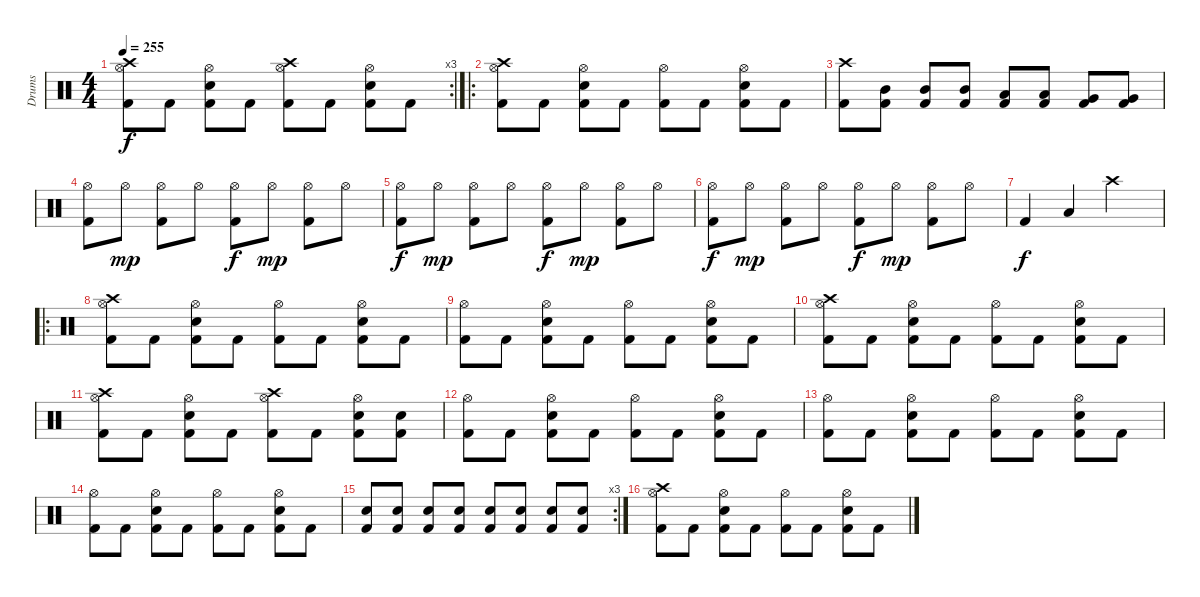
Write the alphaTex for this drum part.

\track ("Drums" "Drums") {instrument percussion}
\staff {score}
\articulation defaults
\rc 3
\ts (4 4)
\tempo 255
\clef neutral
\ks c
("Crash high (hit)" "Hi-Hat (open)" "Kick (hit) 2").8{dy f} "Kick (hit) 2".8 ("Hi-Hat (open)" "Electric Snare (hit)" "Kick (hit) 2").8 "Kick (hit) 2".8 ("Crash high (hit)" "Hi-Hat (open)" "Kick (hit) 2").8 "Kick (hit) 2".8 ("Hi-Hat (open)" "Electric Snare (hit)" "Kick (hit) 2").8 "Kick (hit) 2".8 |
\ro
("Crash high (hit)" "Hi-Hat (open)" "Kick (hit) 2").8 "Kick (hit) 2".8 ("Hi-Hat (open)" "Electric Snare (hit)" "Kick (hit) 2").8 "Kick (hit) 2".8 ("Hi-Hat (open)" "Kick (hit) 2").8 "Kick (hit) 2".8 ("Hi-Hat (open)" "Electric Snare (hit)" "Kick (hit) 2").8 "Kick (hit) 2".8 |
("Crash high (hit)" "Kick (hit) 2").8 ("Mid Tom (hit)" "Kick (hit) 2").8 ("Mid Tom (hit)" "Kick (hit) 2").8 ("Mid Tom (hit)" "Kick (hit) 2").8 ("Low Tom (hit)" "Kick (hit) 2").8 ("Low Tom (hit)" "Kick (hit) 2").8 ("Very Low Tom (hit)" "Kick (hit) 2").8 ("Very Low Tom (hit)" "Kick (hit) 2").8 |
("Hi-Hat (open)" "Kick (hit) 2").8 "Hi-Hat (open)".8{dy mp} ("Hi-Hat (open)" "Kick (hit) 2").8 "Hi-Hat (open)".8 ("Hi-Hat (open)" "Kick (hit) 2").8{dy f} "Hi-Hat (open)".8{dy mp} ("Hi-Hat (open)" "Kick (hit) 2").8 "Hi-Hat (open)".8 |
("Hi-Hat (open)" "Kick (hit) 2").8{dy f} "Hi-Hat (open)".8{dy mp} ("Hi-Hat (open)" "Kick (hit) 2").8 "Hi-Hat (open)".8 ("Hi-Hat (open)" "Kick (hit) 2").8{dy f} "Hi-Hat (open)".8{dy mp} ("Hi-Hat (open)" "Kick (hit) 2").8 "Hi-Hat (open)".8 |
("Hi-Hat (open)" "Kick (hit) 2").8{dy f} "Hi-Hat (open)".8{dy mp} ("Hi-Hat (open)" "Kick (hit) 2").8 "Hi-Hat (open)".8 ("Hi-Hat (open)" "Kick (hit) 2").8{dy f} "Hi-Hat (open)".8{dy mp} ("Hi-Hat (open)" "Kick (hit) 2").8 "Hi-Hat (open)".8 |
"Kick (hit) 2".4{dy f} "Low Tom (hit)".4 "Crash high (hit)".2 |
\ro
("Crash high (hit)" "Hi-Hat (open)" "Kick (hit) 2").8 "Kick (hit) 2".8 ("Hi-Hat (open)" "Electric Snare (hit)" "Kick (hit) 2").8 "Kick (hit) 2".8 ("Hi-Hat (open)" "Kick (hit) 2").8 "Kick (hit) 2".8 ("Hi-Hat (open)" "Electric Snare (hit)" "Kick (hit) 2").8 "Kick (hit) 2".8 |
("Hi-Hat (open)" "Kick (hit) 2").8 "Kick (hit) 2".8 ("Hi-Hat (open)" "Electric Snare (hit)" "Kick (hit) 2").8 "Kick (hit) 2".8 ("Hi-Hat (open)" "Kick (hit) 2").8 "Kick (hit) 2".8 ("Hi-Hat (open)" "Electric Snare (hit)" "Kick (hit) 2").8 "Kick (hit) 2".8 |
("Crash high (hit)" "Hi-Hat (open)" "Kick (hit) 2").8 "Kick (hit) 2".8 ("Hi-Hat (open)" "Electric Snare (hit)" "Kick (hit) 2").8 "Kick (hit) 2".8 ("Hi-Hat (open)" "Kick (hit) 2").8 "Kick (hit) 2".8 ("Hi-Hat (open)" "Electric Snare (hit)" "Kick (hit) 2").8 "Kick (hit) 2".8 |
("Crash high (hit)" "Hi-Hat (open)" "Kick (hit) 2").8 "Kick (hit) 2".8 ("Hi-Hat (open)" "Electric Snare (hit)" "Kick (hit) 2").8 "Kick (hit) 2".8 ("Crash high (hit)" "Hi-Hat (open)" "Kick (hit) 2").8 "Kick (hit) 2".8 ("Hi-Hat (open)" "Electric Snare (hit)" "Kick (hit) 2").8 ("Electric Snare (hit)" "Kick (hit) 2").8 |
("Hi-Hat (open)" "Kick (hit) 2").8 "Kick (hit) 2".8 ("Hi-Hat (open)" "Electric Snare (hit)" "Kick (hit) 2").8 "Kick (hit) 2".8 ("Hi-Hat (open)" "Kick (hit) 2").8 "Kick (hit) 2".8 ("Hi-Hat (open)" "Electric Snare (hit)" "Kick (hit) 2").8 "Kick (hit) 2".8 |
("Hi-Hat (open)" "Kick (hit) 2").8 "Kick (hit) 2".8 ("Hi-Hat (open)" "Electric Snare (hit)" "Kick (hit) 2").8 "Kick (hit) 2".8 ("Hi-Hat (open)" "Kick (hit) 2").8 "Kick (hit) 2".8 ("Hi-Hat (open)" "Electric Snare (hit)" "Kick (hit) 2").8 "Kick (hit) 2".8 |
("Hi-Hat (open)" "Kick (hit) 2").8 "Kick (hit) 2".8 ("Hi-Hat (open)" "Electric Snare (hit)" "Kick (hit) 2").8 "Kick (hit) 2".8 ("Hi-Hat (open)" "Kick (hit) 2").8 "Kick (hit) 2".8 ("Hi-Hat (open)" "Electric Snare (hit)" "Kick (hit) 2").8 "Kick (hit) 2".8 |
\rc 3
("Electric Snare (hit)" "Kick (hit) 2").8 ("Electric Snare (hit)" "Kick (hit) 2").8 ("Electric Snare (hit)" "Kick (hit) 2").8 ("Electric Snare (hit)" "Kick (hit) 2").8 ("Electric Snare (hit)" "Kick (hit) 2").8 ("Electric Snare (hit)" "Kick (hit) 2").8 ("Electric Snare (hit)" "Kick (hit) 2").8 ("Electric Snare (hit)" "Kick (hit) 2").8 |
("Crash high (hit)" "Hi-Hat (open)" "Kick (hit) 2").8 "Kick (hit) 2".8 ("Hi-Hat (open)" "Electric Snare (hit)" "Kick (hit) 2").8 "Kick (hit) 2".8 ("Hi-Hat (open)" "Kick (hit) 2").8 "Kick (hit) 2".8 ("Hi-Hat (open)" "Electric Snare (hit)" "Kick (hit) 2").8 "Kick (hit) 2".8
